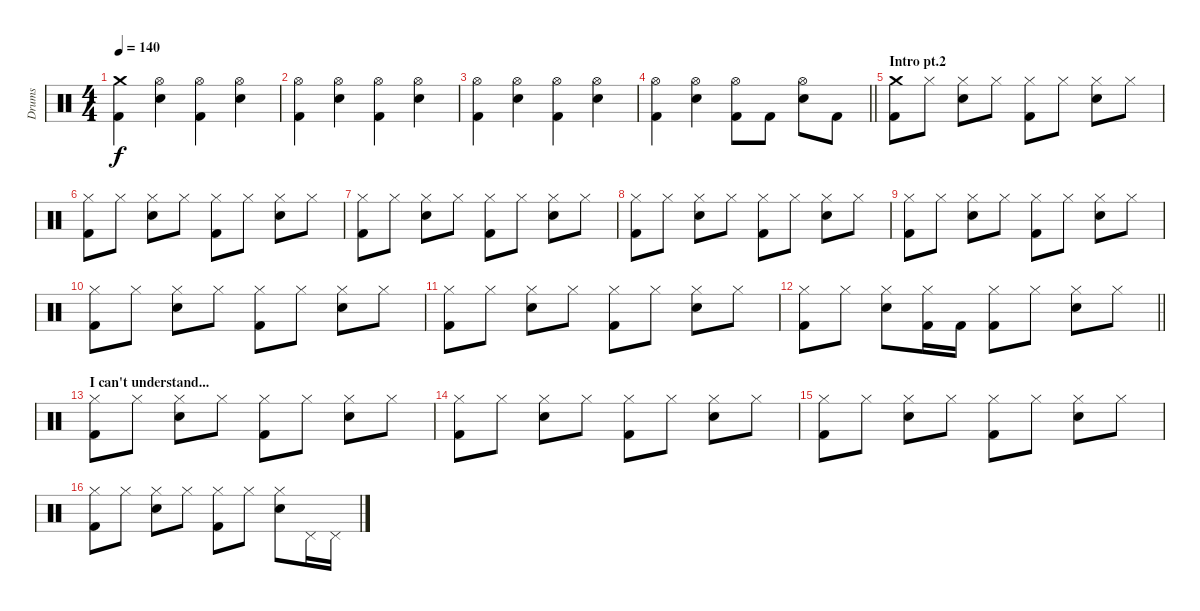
\track ("Drums" "Drums") {instrument percussion}
\staff {score}
\articulation defaults
\ts (4 4)
\tempo 140
\clef neutral
\ks c
("Crash medium (hit)" "Kick (hit) 2").4{dy f} ("Hi-Hat (open)" "Electric Snare (hit)").4 ("Hi-Hat (open)" "Kick (hit) 2").4 ("Hi-Hat (open)" "Electric Snare (hit)").4 |
("Hi-Hat (open)" "Kick (hit) 2").4 ("Hi-Hat (open)" "Electric Snare (hit)").4 ("Hi-Hat (open)" "Kick (hit) 2").4 ("Hi-Hat (open)" "Electric Snare (hit)").4 |
("Hi-Hat (open)" "Kick (hit) 2").4 ("Hi-Hat (open)" "Electric Snare (hit)").4 ("Hi-Hat (open)" "Kick (hit) 2").4 ("Hi-Hat (open)" "Electric Snare (hit)").4 |
\barLineRight lightlight
("Hi-Hat (open)" "Kick (hit) 2").4 ("Hi-Hat (open)" "Electric Snare (hit)").4 ("Hi-Hat (open)" "Kick (hit) 2").8 "Kick (hit) 2".8 ("Hi-Hat (open)" "Electric Snare (hit)").8 "Kick (hit) 2".8 |
\section ("" "Intro pt.2")
("Crash medium (hit)" "Kick (hit) 2").8 "Hi-Hat (closed)".8 ("Hi-Hat (closed)" "Electric Snare (hit)").8 "Hi-Hat (closed)".8 ("Hi-Hat (closed)" "Kick (hit) 2").8 "Hi-Hat (closed)".8 ("Hi-Hat (closed)" "Electric Snare (hit)").8 "Hi-Hat (closed)".8 |
("Hi-Hat (closed)" "Kick (hit) 2").8 "Hi-Hat (closed)".8 ("Hi-Hat (closed)" "Electric Snare (hit)").8 "Hi-Hat (closed)".8 ("Hi-Hat (closed)" "Kick (hit) 2").8 "Hi-Hat (closed)".8 ("Hi-Hat (closed)" "Electric Snare (hit)").8 "Hi-Hat (closed)".8 |
("Hi-Hat (closed)" "Kick (hit) 2").8 "Hi-Hat (closed)".8 ("Hi-Hat (closed)" "Electric Snare (hit)").8 "Hi-Hat (closed)".8 ("Hi-Hat (closed)" "Kick (hit) 2").8 "Hi-Hat (closed)".8 ("Hi-Hat (closed)" "Electric Snare (hit)").8 "Hi-Hat (closed)".8 |
("Hi-Hat (closed)" "Kick (hit) 2").8 "Hi-Hat (closed)".8 ("Hi-Hat (closed)" "Electric Snare (hit)").8 "Hi-Hat (closed)".8 ("Hi-Hat (closed)" "Kick (hit) 2").8 "Hi-Hat (closed)".8 ("Hi-Hat (closed)" "Electric Snare (hit)").8 "Hi-Hat (closed)".8 |
("Hi-Hat (closed)" "Kick (hit) 2").8 "Hi-Hat (closed)".8 ("Hi-Hat (closed)" "Electric Snare (hit)").8 "Hi-Hat (closed)".8 ("Hi-Hat (closed)" "Kick (hit) 2").8 "Hi-Hat (closed)".8 ("Hi-Hat (closed)" "Electric Snare (hit)").8 "Hi-Hat (closed)".8 |
("Hi-Hat (closed)" "Kick (hit) 2").8 "Hi-Hat (closed)".8 ("Hi-Hat (closed)" "Electric Snare (hit)").8 "Hi-Hat (closed)".8 ("Hi-Hat (closed)" "Kick (hit) 2").8 "Hi-Hat (closed)".8 ("Hi-Hat (closed)" "Electric Snare (hit)").8 "Hi-Hat (closed)".8 |
("Hi-Hat (closed)" "Kick (hit) 2").8 "Hi-Hat (closed)".8 ("Hi-Hat (closed)" "Electric Snare (hit)").8 "Hi-Hat (closed)".8 ("Hi-Hat (closed)" "Kick (hit) 2").8 "Hi-Hat (closed)".8 ("Hi-Hat (closed)" "Electric Snare (hit)").8 "Hi-Hat (closed)".8 |
\barLineRight lightlight
("Hi-Hat (closed)" "Kick (hit) 2").8 "Hi-Hat (closed)".8 ("Hi-Hat (closed)" "Electric Snare (hit)").8 ("Hi-Hat (closed)" "Kick (hit) 2").16 "Kick (hit) 2".16 ("Hi-Hat (closed)" "Kick (hit) 2").8 "Hi-Hat (closed)".8 ("Hi-Hat (closed)" "Electric Snare (hit)").8 "Hi-Hat (closed)".8 |
\section ("" "I can't understand...")
("Hi-Hat (closed)" "Kick (hit) 2").8 "Hi-Hat (closed)".8 ("Hi-Hat (closed)" "Electric Snare (hit)").8 "Hi-Hat (closed)".8 ("Hi-Hat (closed)" "Kick (hit) 2").8 "Hi-Hat (closed)".8 ("Hi-Hat (closed)" "Electric Snare (hit)").8 "Hi-Hat (closed)".8 |
("Hi-Hat (closed)" "Kick (hit) 2").8 "Hi-Hat (closed)".8 ("Hi-Hat (closed)" "Electric Snare (hit)").8 "Hi-Hat (closed)".8 ("Hi-Hat (closed)" "Kick (hit) 2").8 "Hi-Hat (closed)".8 ("Hi-Hat (closed)" "Electric Snare (hit)").8 "Hi-Hat (closed)".8 |
("Hi-Hat (closed)" "Kick (hit) 2").8 "Hi-Hat (closed)".8 ("Hi-Hat (closed)" "Electric Snare (hit)").8 "Hi-Hat (closed)".8 ("Hi-Hat (closed)" "Kick (hit) 2").8 "Hi-Hat (closed)".8 ("Hi-Hat (closed)" "Electric Snare (hit)").8 "Hi-Hat (closed)".8 |
("Hi-Hat (closed)" "Kick (hit) 2").8 "Hi-Hat (closed)".8 ("Hi-Hat (closed)" "Electric Snare (hit)").8 "Hi-Hat (closed)".8 ("Hi-Hat (closed)" "Kick (hit) 2").8 "Hi-Hat (closed)".8 ("Hi-Hat (closed)" "Electric Snare (hit)").8 "Pedal Hi-Hat (hit)".16 "Pedal Hi-Hat (hit)".16
